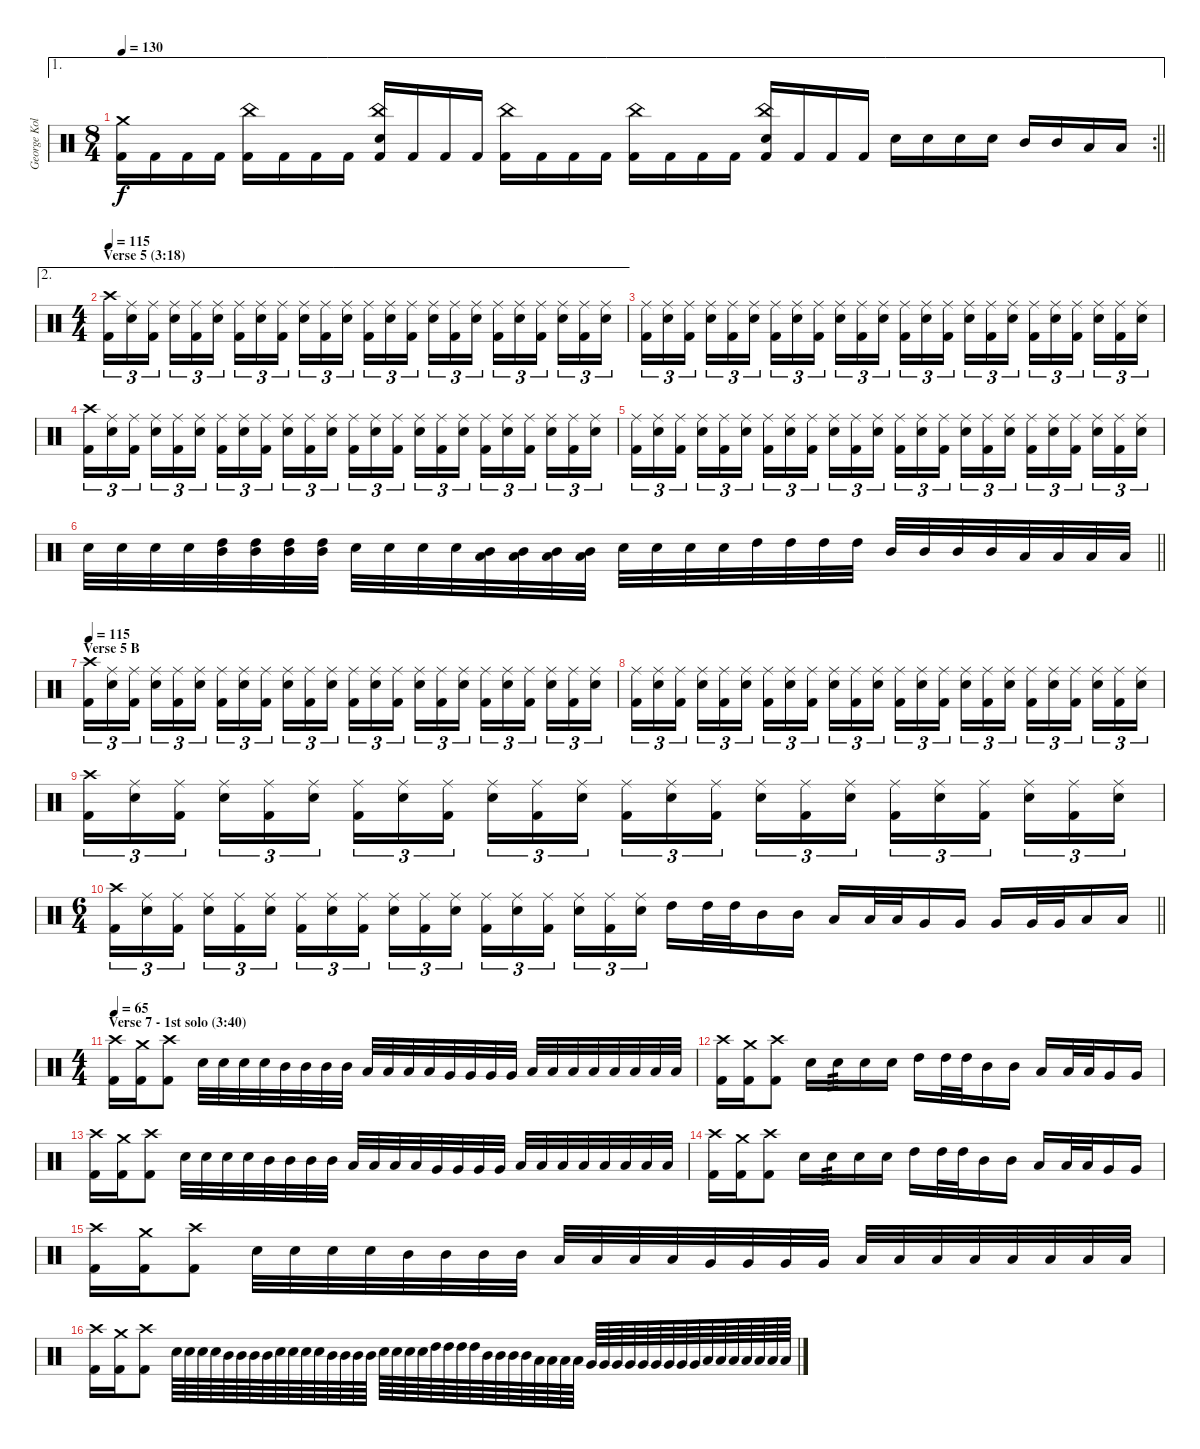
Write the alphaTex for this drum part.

\track ("George Kollias" "George Kol") {instrument percussion}
\staff {score}
\articulation defaults
\ae 1
\rc 2
\ts (8 4)
\tempo 130
\clef neutral
\barLineRight lightlight
\ks c
("Crash medium (hit)" "Kick (hit) 2").16{dy f} "Kick (hit) 2".16 "Kick (hit) 2".16 "Kick (hit) 2".16 ("China (hit)" "Kick (hit) 2").16 "Kick (hit) 2".16 "Kick (hit) 2".16 "Kick (hit) 2".16 ("China (hit)" "Electric Snare (hit)" "Kick (hit) 2").16 "Kick (hit) 2".16 "Kick (hit) 2".16 "Kick (hit) 2".16 ("China (hit)" "Kick (hit) 2").16 "Kick (hit) 2".16 "Kick (hit) 2".16 "Kick (hit) 2".16 ("China (hit)" "Kick (hit) 2").16 "Kick (hit) 2".16 "Kick (hit) 2".16 "Kick (hit) 2".16 ("China (hit)" "Electric Snare (hit)" "Kick (hit) 2").16 "Kick (hit) 2".16 "Kick (hit) 2".16 "Kick (hit) 2".16 "Electric Snare (hit)".16 "Electric Snare (hit)".16 "Electric Snare (hit)".16 "Electric Snare (hit)".16 "Mid Tom (hit)".16 "Mid Tom (hit)".16 "Low Tom (hit)".16 "Low Tom (hit)".16 |
\ae 2
\ts (4 4)
\section ("" "Verse 5 (3:18)")
\tempo 115
("Crash high (hit)" "Kick (hit) 2").16{tu (3 2)} ("Ride (middle)" "Electric Snare (hit)").16{tu (3 2)} ("Ride (middle)" "Kick (hit) 2").16{tu (3 2) beam splitsecondary} ("Ride (middle)" "Electric Snare (hit)").16{tu (3 2)} ("Ride (middle)" "Kick (hit) 2").16{tu (3 2)} ("Ride (middle)" "Electric Snare (hit)").16{tu (3 2)} ("Ride (middle)" "Kick (hit) 2").16{tu (3 2)} ("Ride (middle)" "Electric Snare (hit)").16{tu (3 2)} ("Ride (middle)" "Kick (hit) 2").16{tu (3 2) beam splitsecondary} ("Ride (middle)" "Electric Snare (hit)").16{tu (3 2)} ("Ride (middle)" "Kick (hit) 2").16{tu (3 2)} ("Ride (middle)" "Electric Snare (hit)").16{tu (3 2)} ("Ride (middle)" "Kick (hit) 2").16{tu (3 2)} ("Ride (middle)" "Electric Snare (hit)").16{tu (3 2)} ("Ride (middle)" "Kick (hit) 2").16{tu (3 2) beam splitsecondary} ("Ride (middle)" "Electric Snare (hit)").16{tu (3 2)} ("Ride (middle)" "Kick (hit) 2").16{tu (3 2)} ("Ride (middle)" "Electric Snare (hit)").16{tu (3 2)} ("Ride (middle)" "Kick (hit) 2").16{tu (3 2)} ("Ride (middle)" "Electric Snare (hit)").16{tu (3 2)} ("Ride (middle)" "Kick (hit) 2").16{tu (3 2) beam splitsecondary} ("Ride (middle)" "Electric Snare (hit)").16{tu (3 2)} ("Ride (middle)" "Kick (hit) 2").16{tu (3 2)} ("Ride (middle)" "Electric Snare (hit)").16{tu (3 2)} |
("Ride (middle)" "Kick (hit) 2").16{tu (3 2)} ("Ride (middle)" "Electric Snare (hit)").16{tu (3 2)} ("Ride (middle)" "Kick (hit) 2").16{tu (3 2) beam splitsecondary} ("Ride (middle)" "Electric Snare (hit)").16{tu (3 2)} ("Ride (middle)" "Kick (hit) 2").16{tu (3 2)} ("Ride (middle)" "Electric Snare (hit)").16{tu (3 2)} ("Ride (middle)" "Kick (hit) 2").16{tu (3 2)} ("Ride (middle)" "Electric Snare (hit)").16{tu (3 2)} ("Ride (middle)" "Kick (hit) 2").16{tu (3 2) beam splitsecondary} ("Ride (middle)" "Electric Snare (hit)").16{tu (3 2)} ("Ride (middle)" "Kick (hit) 2").16{tu (3 2)} ("Ride (middle)" "Electric Snare (hit)").16{tu (3 2)} ("Ride (middle)" "Kick (hit) 2").16{tu (3 2)} ("Ride (middle)" "Electric Snare (hit)").16{tu (3 2)} ("Ride (middle)" "Kick (hit) 2").16{tu (3 2) beam splitsecondary} ("Ride (middle)" "Electric Snare (hit)").16{tu (3 2)} ("Ride (middle)" "Kick (hit) 2").16{tu (3 2)} ("Ride (middle)" "Electric Snare (hit)").16{tu (3 2)} ("Ride (middle)" "Kick (hit) 2").16{tu (3 2)} ("Ride (middle)" "Electric Snare (hit)").16{tu (3 2)} ("Ride (middle)" "Kick (hit) 2").16{tu (3 2) beam splitsecondary} ("Ride (middle)" "Electric Snare (hit)").16{tu (3 2)} ("Ride (middle)" "Kick (hit) 2").16{tu (3 2)} ("Ride (middle)" "Electric Snare (hit)").16{tu (3 2)} |
("Crash high (hit)" "Kick (hit) 2").16{tu (3 2)} ("Ride (middle)" "Electric Snare (hit)").16{tu (3 2)} ("Ride (middle)" "Kick (hit) 2").16{tu (3 2) beam splitsecondary} ("Ride (middle)" "Electric Snare (hit)").16{tu (3 2)} ("Ride (middle)" "Kick (hit) 2").16{tu (3 2)} ("Ride (middle)" "Electric Snare (hit)").16{tu (3 2)} ("Ride (middle)" "Kick (hit) 2").16{tu (3 2)} ("Ride (middle)" "Electric Snare (hit)").16{tu (3 2)} ("Ride (middle)" "Kick (hit) 2").16{tu (3 2) beam splitsecondary} ("Ride (middle)" "Electric Snare (hit)").16{tu (3 2)} ("Ride (middle)" "Kick (hit) 2").16{tu (3 2)} ("Ride (middle)" "Electric Snare (hit)").16{tu (3 2)} ("Ride (middle)" "Kick (hit) 2").16{tu (3 2)} ("Ride (middle)" "Electric Snare (hit)").16{tu (3 2)} ("Ride (middle)" "Kick (hit) 2").16{tu (3 2) beam splitsecondary} ("Ride (middle)" "Electric Snare (hit)").16{tu (3 2)} ("Ride (middle)" "Kick (hit) 2").16{tu (3 2)} ("Ride (middle)" "Electric Snare (hit)").16{tu (3 2)} ("Ride (middle)" "Kick (hit) 2").16{tu (3 2)} ("Ride (middle)" "Electric Snare (hit)").16{tu (3 2)} ("Ride (middle)" "Kick (hit) 2").16{tu (3 2) beam splitsecondary} ("Ride (middle)" "Electric Snare (hit)").16{tu (3 2)} ("Ride (middle)" "Kick (hit) 2").16{tu (3 2)} ("Ride (middle)" "Electric Snare (hit)").16{tu (3 2)} |
("Ride (middle)" "Kick (hit) 2").16{tu (3 2)} ("Ride (middle)" "Electric Snare (hit)").16{tu (3 2)} ("Ride (middle)" "Kick (hit) 2").16{tu (3 2) beam splitsecondary} ("Ride (middle)" "Electric Snare (hit)").16{tu (3 2)} ("Ride (middle)" "Kick (hit) 2").16{tu (3 2)} ("Ride (middle)" "Electric Snare (hit)").16{tu (3 2)} ("Ride (middle)" "Kick (hit) 2").16{tu (3 2)} ("Ride (middle)" "Electric Snare (hit)").16{tu (3 2)} ("Ride (middle)" "Kick (hit) 2").16{tu (3 2) beam splitsecondary} ("Ride (middle)" "Electric Snare (hit)").16{tu (3 2)} ("Ride (middle)" "Kick (hit) 2").16{tu (3 2)} ("Ride (middle)" "Electric Snare (hit)").16{tu (3 2)} ("Ride (middle)" "Kick (hit) 2").16{tu (3 2)} ("Ride (middle)" "Electric Snare (hit)").16{tu (3 2)} ("Ride (middle)" "Kick (hit) 2").16{tu (3 2) beam splitsecondary} ("Ride (middle)" "Electric Snare (hit)").16{tu (3 2)} ("Ride (middle)" "Kick (hit) 2").16{tu (3 2)} ("Ride (middle)" "Electric Snare (hit)").16{tu (3 2)} ("Ride (middle)" "Kick (hit) 2").16{tu (3 2)} ("Ride (middle)" "Electric Snare (hit)").16{tu (3 2)} ("Ride (middle)" "Kick (hit) 2").16{tu (3 2) beam splitsecondary} ("Ride (middle)" "Electric Snare (hit)").16{tu (3 2)} ("Ride (middle)" "Kick (hit) 2").16{tu (3 2)} ("Ride (middle)" "Electric Snare (hit)").16{tu (3 2)} |
\barLineRight lightlight "Electric Snare (hit)".32 "Electric Snare (hit)".32 "Electric Snare (hit)".32 "Electric Snare (hit)".32
("High Tom (hit)" "Mid Tom (hit)").32 ("High Tom (hit)" "Mid Tom (hit)").32 ("High Tom (hit)" "Mid Tom (hit)").32 ("High Tom (hit)" "Mid Tom (hit)").32 "Electric Snare (hit)".32 "Electric Snare (hit)".32 "Electric Snare (hit)".32 "Electric Snare (hit)".32 ("Mid Tom (hit)" "Low Tom (hit)").32 ("Mid Tom (hit)" "Low Tom (hit)").32 ("Mid Tom (hit)" "Low Tom (hit)").32 ("Mid Tom (hit)" "Low Tom (hit)").32 "Electric Snare (hit)".32 "Electric Snare (hit)".32 "Electric Snare (hit)".32 "Electric Snare (hit)".32 "High Tom (hit)".32 "High Tom (hit)".32 "High Tom (hit)".32 "High Tom (hit)".32 "Mid Tom (hit)".32 "Mid Tom (hit)".32 "Mid Tom (hit)".32 "Mid Tom (hit)".32 "Low Tom (hit)".32 "Low Tom (hit)".32 "Low Tom (hit)".32 "Low Tom (hit)".32 |
\section ("" "Verse 5 B")
\tempo 115
("Crash high (hit)" "Kick (hit) 2").16{tu (3 2)} ("Ride (middle)" "Electric Snare (hit)").16{tu (3 2)} ("Ride (middle)" "Kick (hit) 2").16{tu (3 2) beam splitsecondary} ("Ride (middle)" "Electric Snare (hit)").16{tu (3 2)} ("Ride (middle)" "Kick (hit) 2").16{tu (3 2)} ("Ride (middle)" "Electric Snare (hit)").16{tu (3 2)} ("Ride (middle)" "Kick (hit) 2").16{tu (3 2)} ("Ride (middle)" "Electric Snare (hit)").16{tu (3 2)} ("Ride (middle)" "Kick (hit) 2").16{tu (3 2) beam splitsecondary} ("Ride (middle)" "Electric Snare (hit)").16{tu (3 2)} ("Ride (middle)" "Kick (hit) 2").16{tu (3 2)} ("Ride (middle)" "Electric Snare (hit)").16{tu (3 2)} ("Ride (middle)" "Kick (hit) 2").16{tu (3 2)} ("Ride (middle)" "Electric Snare (hit)").16{tu (3 2)} ("Ride (middle)" "Kick (hit) 2").16{tu (3 2) beam splitsecondary} ("Ride (middle)" "Electric Snare (hit)").16{tu (3 2)} ("Ride (middle)" "Kick (hit) 2").16{tu (3 2)} ("Ride (middle)" "Electric Snare (hit)").16{tu (3 2)} ("Ride (middle)" "Kick (hit) 2").16{tu (3 2)} ("Ride (middle)" "Electric Snare (hit)").16{tu (3 2)} ("Ride (middle)" "Kick (hit) 2").16{tu (3 2) beam splitsecondary} ("Ride (middle)" "Electric Snare (hit)").16{tu (3 2)} ("Ride (middle)" "Kick (hit) 2").16{tu (3 2)} ("Ride (middle)" "Electric Snare (hit)").16{tu (3 2)} |
("Ride (middle)" "Kick (hit) 2").16{tu (3 2)} ("Ride (middle)" "Electric Snare (hit)").16{tu (3 2)} ("Ride (middle)" "Kick (hit) 2").16{tu (3 2) beam splitsecondary} ("Ride (middle)" "Electric Snare (hit)").16{tu (3 2)} ("Ride (middle)" "Kick (hit) 2").16{tu (3 2)} ("Ride (middle)" "Electric Snare (hit)").16{tu (3 2)} ("Ride (middle)" "Kick (hit) 2").16{tu (3 2)} ("Ride (middle)" "Electric Snare (hit)").16{tu (3 2)} ("Ride (middle)" "Kick (hit) 2").16{tu (3 2) beam splitsecondary} ("Ride (middle)" "Electric Snare (hit)").16{tu (3 2)} ("Ride (middle)" "Kick (hit) 2").16{tu (3 2)} ("Ride (middle)" "Electric Snare (hit)").16{tu (3 2)} ("Ride (middle)" "Kick (hit) 2").16{tu (3 2)} ("Ride (middle)" "Electric Snare (hit)").16{tu (3 2)} ("Ride (middle)" "Kick (hit) 2").16{tu (3 2) beam splitsecondary} ("Ride (middle)" "Electric Snare (hit)").16{tu (3 2)} ("Ride (middle)" "Kick (hit) 2").16{tu (3 2)} ("Ride (middle)" "Electric Snare (hit)").16{tu (3 2)} ("Ride (middle)" "Kick (hit) 2").16{tu (3 2)} ("Ride (middle)" "Electric Snare (hit)").16{tu (3 2)} ("Ride (middle)" "Kick (hit) 2").16{tu (3 2) beam splitsecondary} ("Ride (middle)" "Electric Snare (hit)").16{tu (3 2)} ("Ride (middle)" "Kick (hit) 2").16{tu (3 2)} ("Ride (middle)" "Electric Snare (hit)").16{tu (3 2)} |
("Crash high (hit)" "Kick (hit) 2").16{tu (3 2)} ("Ride (middle)" "Electric Snare (hit)").16{tu (3 2)} ("Ride (middle)" "Kick (hit) 2").16{tu (3 2) beam splitsecondary} ("Ride (middle)" "Electric Snare (hit)").16{tu (3 2)} ("Ride (middle)" "Kick (hit) 2").16{tu (3 2)} ("Ride (middle)" "Electric Snare (hit)").16{tu (3 2)} ("Ride (middle)" "Kick (hit) 2").16{tu (3 2)} ("Ride (middle)" "Electric Snare (hit)").16{tu (3 2)} ("Ride (middle)" "Kick (hit) 2").16{tu (3 2) beam splitsecondary} ("Ride (middle)" "Electric Snare (hit)").16{tu (3 2)} ("Ride (middle)" "Kick (hit) 2").16{tu (3 2)} ("Ride (middle)" "Electric Snare (hit)").16{tu (3 2)} ("Ride (middle)" "Kick (hit) 2").16{tu (3 2)} ("Ride (middle)" "Electric Snare (hit)").16{tu (3 2)} ("Ride (middle)" "Kick (hit) 2").16{tu (3 2) beam splitsecondary} ("Ride (middle)" "Electric Snare (hit)").16{tu (3 2)} ("Ride (middle)" "Kick (hit) 2").16{tu (3 2)} ("Ride (middle)" "Electric Snare (hit)").16{tu (3 2)} ("Ride (middle)" "Kick (hit) 2").16{tu (3 2)} ("Ride (middle)" "Electric Snare (hit)").16{tu (3 2)} ("Ride (middle)" "Kick (hit) 2").16{tu (3 2) beam splitsecondary} ("Ride (middle)" "Electric Snare (hit)").16{tu (3 2)} ("Ride (middle)" "Kick (hit) 2").16{tu (3 2)} ("Ride (middle)" "Electric Snare (hit)").16{tu (3 2)} |
\ts (6 4)
\barLineRight lightlight
("Crash high (hit)" "Kick (hit) 2").16{tu (3 2)} ("Ride (middle)" "Electric Snare (hit)").16{tu (3 2)} ("Ride (middle)" "Kick (hit) 2").16{tu (3 2) beam splitsecondary} ("Ride (middle)" "Electric Snare (hit)").16{tu (3 2)} ("Ride (middle)" "Kick (hit) 2").16{tu (3 2)} ("Ride (middle)" "Electric Snare (hit)").16{tu (3 2) beam splitsecondary} ("Ride (middle)" "Kick (hit) 2").16{tu (3 2)} ("Ride (middle)" "Electric Snare (hit)").16{tu (3 2)} ("Ride (middle)" "Kick (hit) 2").16{tu (3 2) beam splitsecondary} ("Ride (middle)" "Electric Snare (hit)").16{tu (3 2)} ("Ride (middle)" "Kick (hit) 2").16{tu (3 2)} ("Ride (middle)" "Electric Snare (hit)").16{tu (3 2) beam splitsecondary} ("Ride (middle)" "Kick (hit) 2").16{tu (3 2)} ("Ride (middle)" "Electric Snare (hit)").16{tu (3 2)} ("Ride (middle)" "Kick (hit) 2").16{tu (3 2) beam splitsecondary} ("Ride (middle)" "Electric Snare (hit)").16{tu (3 2)} ("Ride (middle)" "Kick (hit) 2").16{tu (3 2)} ("Ride (middle)" "Electric Snare (hit)").16{tu (3 2)} "High Tom (hit)".16 "High Tom (hit)".32 "High Tom (hit)".32 "Mid Tom (hit)".16 "Mid Tom (hit)".16 "Low Tom (hit)".16 "Low Tom (hit)".32 "Low Tom (hit)".32 "Very Low Tom (hit)".16 "Very Low Tom (hit)".16 "Very Low Tom (hit)".16 "Very Low Tom (hit)".32 "Very Low Tom (hit)".32 "Low Floor Tom (hit)".16 "Low Floor Tom (hit)".16 |
\ts (4 4)
\section ("" "Verse 7 - 1st solo (3:40)")
\tempo 65
("Crash high (hit)" "Kick (hit) 2").16 ("Crash medium (hit)" "Kick (hit) 2").16 ("Crash high (hit)" "Kick (hit) 2").8 "Electric Snare (hit)".32 "Electric Snare (hit)".32 "Electric Snare (hit)".32 "Electric Snare (hit)".32 "Mid Tom (hit)".32 "Mid Tom (hit)".32 "Mid Tom (hit)".32 "Mid Tom (hit)".32 "Low Tom (hit)".32 "Low Tom (hit)".32 "Low Tom (hit)".32 "Low Tom (hit)".32 "Very Low Tom (hit)".32 "Very Low Tom (hit)".32 "Very Low Tom (hit)".32 "Very Low Tom (hit)".32 "Low Floor Tom (hit)".32 "Low Floor Tom (hit)".32 "Low Floor Tom (hit)".32 "Low Floor Tom (hit)".32 "Low Floor Tom (hit)".32 "Low Floor Tom (hit)".32 "Low Floor Tom (hit)".32 "Low Floor Tom (hit)".32 |
("Crash high (hit)" "Kick (hit) 2").16 ("Crash medium (hit)" "Kick (hit) 2").16 ("Crash high (hit)" "Kick (hit) 2").8 "Electric Snare (hit)".16 "Electric Snare (hit)".16{tp 3} "Electric Snare (hit)".16 "Electric Snare (hit)".16 "High Tom (hit)".16 "High Tom (hit)".32 "High Tom (hit)".32 "Mid Tom (hit)".16 "Mid Tom (hit)".16 "Low Tom (hit)".16 "Low Tom (hit)".32 "Low Tom (hit)".32 "Very Low Tom (hit)".16 "Very Low Tom (hit)".16 |
("Crash high (hit)" "Kick (hit) 2").16 ("Crash medium (hit)" "Kick (hit) 2").16 ("Crash high (hit)" "Kick (hit) 2").8 "Electric Snare (hit)".32 "Electric Snare (hit)".32 "Electric Snare (hit)".32 "Electric Snare (hit)".32 "Mid Tom (hit)".32 "Mid Tom (hit)".32 "Mid Tom (hit)".32 "Mid Tom (hit)".32 "Low Tom (hit)".32 "Low Tom (hit)".32 "Low Tom (hit)".32 "Low Tom (hit)".32 "Very Low Tom (hit)".32 "Very Low Tom (hit)".32 "Very Low Tom (hit)".32 "Very Low Tom (hit)".32 "Low Floor Tom (hit)".32 "Low Floor Tom (hit)".32 "Low Floor Tom (hit)".32 "Low Floor Tom (hit)".32 "Low Floor Tom (hit)".32 "Low Floor Tom (hit)".32 "Low Floor Tom (hit)".32 "Low Floor Tom (hit)".32 |
("Crash high (hit)" "Kick (hit) 2").16 ("Crash medium (hit)" "Kick (hit) 2").16 ("Crash high (hit)" "Kick (hit) 2").8 "Electric Snare (hit)".16 "Electric Snare (hit)".16{tp 3} "Electric Snare (hit)".16 "Electric Snare (hit)".16 "High Tom (hit)".16 "High Tom (hit)".32 "High Tom (hit)".32 "Mid Tom (hit)".16 "Mid Tom (hit)".16 "Low Tom (hit)".16 "Low Tom (hit)".32 "Low Tom (hit)".32 "Very Low Tom (hit)".16 "Very Low Tom (hit)".16 |
("Crash high (hit)" "Kick (hit) 2").16 ("Crash medium (hit)" "Kick (hit) 2").16 ("Crash high (hit)" "Kick (hit) 2").8 "Electric Snare (hit)".32 "Electric Snare (hit)".32 "Electric Snare (hit)".32 "Electric Snare (hit)".32 "Mid Tom (hit)".32 "Mid Tom (hit)".32 "Mid Tom (hit)".32 "Mid Tom (hit)".32 "Low Tom (hit)".32 "Low Tom (hit)".32 "Low Tom (hit)".32 "Low Tom (hit)".32 "Very Low Tom (hit)".32 "Very Low Tom (hit)".32 "Very Low Tom (hit)".32 "Very Low Tom (hit)".32 "Low Floor Tom (hit)".32 "Low Floor Tom (hit)".32 "Low Floor Tom (hit)".32 "Low Floor Tom (hit)".32 "Low Floor Tom (hit)".32 "Low Floor Tom (hit)".32 "Low Floor Tom (hit)".32 "Low Floor Tom (hit)".32 |
("Crash high (hit)" "Kick (hit) 2").16 ("Crash medium (hit)" "Kick (hit) 2").16 ("Crash high (hit)" "Kick (hit) 2").8 "Electric Snare (hit)".64 "Electric Snare (hit)".64 "Electric Snare (hit)".64 "Electric Snare (hit)".64 "Mid Tom (hit)".64 "Mid Tom (hit)".64 "Mid Tom (hit)".64 "Mid Tom (hit)".64 "Electric Snare (hit)".64 "Electric Snare (hit)".64 "Electric Snare (hit)".64 "Electric Snare (hit)".64 "Mid Tom (hit)".64 "Mid Tom (hit)".64 "Mid Tom (hit)".64 "Mid Tom (hit)".64 "Electric Snare (hit)".64 "Electric Snare (hit)".64 "Electric Snare (hit)".64 "Electric Snare (hit)".64 "High Tom (hit)".64 "High Tom (hit)".64 "High Tom (hit)".64 "High Tom (hit)".64 "Mid Tom (hit)".64 "Mid Tom (hit)".64 "Mid Tom (hit)".64 "Mid Tom (hit)".64 "Low Tom (hit)".64 "Low Tom (hit)".64 "Low Tom (hit)".64 "Low Tom (hit)".64 "Very Low Tom (hit)".64 "Very Low Tom (hit)".64 "Very Low Tom (hit)".64 "Very Low Tom (hit)".64 "Very Low Tom (hit)".64 "Very Low Tom (hit)".64 "Very Low Tom (hit)".64 "Very Low Tom (hit)".64 "Very Low Tom (hit)".64 "Low Floor Tom (hit)".64 "Low Floor Tom (hit)".64 "Low Floor Tom (hit)".64 "Low Floor Tom (hit)".64 "Low Floor Tom (hit)".64 "Low Floor Tom (hit)".64 "Low Floor Tom (hit)".64
